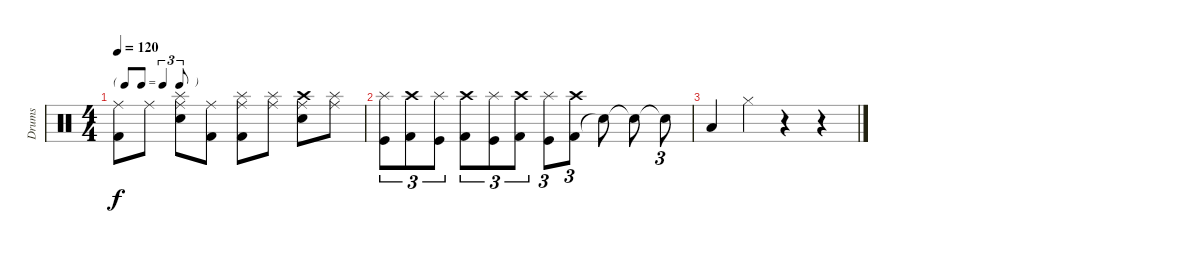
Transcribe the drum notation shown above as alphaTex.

\track ("Drums" "Drums") {instrument percussion}
\staff {score}
\articulation defaults
\ts (4 4)
\tf triplet8th
\tempo 120
\clef neutral
\ks c
("Ride (middle)" "Kick (hit) 2").8{dy f} "Ride (middle)".8 ("Ride (middle)" "Electric Snare (hit)" "Splash (hit)").8 ("Ride (middle)" "Kick (hit) 2").8 ("Ride (middle)" "Kick (hit) 2" "Splash (hit)").8 ("Ride (middle)" "Splash (hit)").8 ("Ride (middle)" "Electric Snare (hit)" "Crash high (hit)").8 ("Ride (middle)" "Splash (hit)").8 |
("Kick (hit)" "Splash (hit)").8{tu (3 2)} ("Kick (hit) 2" "Crash high (hit)").8{tu (3 2)} ("Kick (hit)" "Splash (hit)").8{tu (3 2)} ("Kick (hit) 2" "Crash high (hit)").8{tu (3 2)} ("Kick (hit)" "Splash (hit)").8{tu (3 2)} ("Kick (hit) 2" "Crash high (hit)").8{tu (3 2)} ("Kick (hit)" "Splash (hit)").8{tu (3 2)} ("Kick (hit) 2" "Crash high (hit)").8{tu (3 2)} "Snare (hit)"{t}.8 "Snare (hit)"{t}.8 "Snare (hit)"{t}.8{tu (3 2)} |
"Low Floor Tom (hit)".4 "Hi-Hat (closed)".4 r.4 r.4
